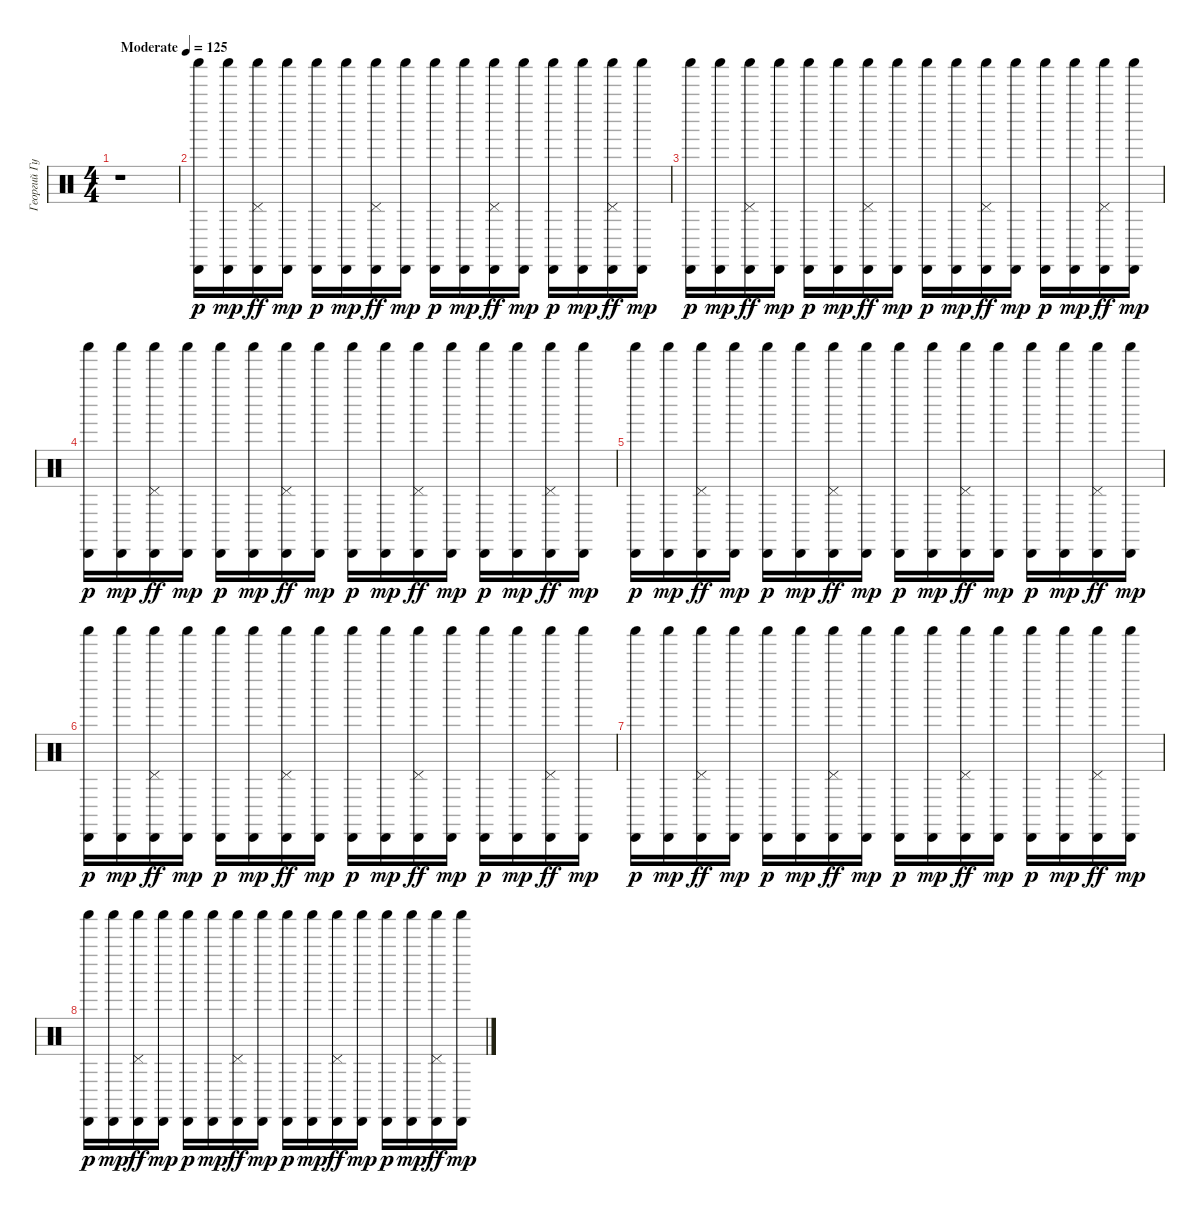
\track ("Георгий Гурьянов_2" "Георгий Гу") {instrument percussion}
\staff {score}
\articulation defaults
\ts (4 4)
\tempo (125 "Moderate")
\clef neutral
\ks c
r.1{dy p} |
("Cabasa (hit)" "Shaker (hit)").16 ("Cabasa (hit)" "Shaker (hit)").16{dy mp} ("Cabasa (hit)" "Shaker (hit)" "Pedal Hi-Hat (hit)").16{dy ff} ("Cabasa (hit)" "Shaker (hit)").16{dy mp} ("Cabasa (hit)" "Shaker (hit)").16{dy p} ("Cabasa (hit)" "Shaker (hit)").16{dy mp} ("Cabasa (hit)" "Shaker (hit)" "Pedal Hi-Hat (hit)").16{dy ff} ("Cabasa (hit)" "Shaker (hit)").16{dy mp} ("Cabasa (hit)" "Shaker (hit)").16{dy p} ("Cabasa (hit)" "Shaker (hit)").16{dy mp} ("Cabasa (hit)" "Shaker (hit)" "Pedal Hi-Hat (hit)").16{dy ff} ("Cabasa (hit)" "Shaker (hit)").16{dy mp} ("Cabasa (hit)" "Shaker (hit)").16{dy p} ("Cabasa (hit)" "Shaker (hit)").16{dy mp} ("Cabasa (hit)" "Shaker (hit)" "Pedal Hi-Hat (hit)").16{dy ff} ("Cabasa (hit)" "Shaker (hit)").16{dy mp} |
("Cabasa (hit)" "Shaker (hit)").16{dy p} ("Cabasa (hit)" "Shaker (hit)").16{dy mp} ("Cabasa (hit)" "Shaker (hit)" "Pedal Hi-Hat (hit)").16{dy ff} ("Cabasa (hit)" "Shaker (hit)").16{dy mp} ("Cabasa (hit)" "Shaker (hit)").16{dy p} ("Cabasa (hit)" "Shaker (hit)").16{dy mp} ("Cabasa (hit)" "Shaker (hit)" "Pedal Hi-Hat (hit)").16{dy ff} ("Cabasa (hit)" "Shaker (hit)").16{dy mp} ("Cabasa (hit)" "Shaker (hit)").16{dy p} ("Cabasa (hit)" "Shaker (hit)").16{dy mp} ("Cabasa (hit)" "Shaker (hit)" "Pedal Hi-Hat (hit)").16{dy ff} ("Cabasa (hit)" "Shaker (hit)").16{dy mp} ("Cabasa (hit)" "Shaker (hit)").16{dy p} ("Cabasa (hit)" "Shaker (hit)").16{dy mp} ("Cabasa (hit)" "Shaker (hit)" "Pedal Hi-Hat (hit)").16{dy ff} ("Cabasa (hit)" "Shaker (hit)").16{dy mp} |
("Cabasa (hit)" "Shaker (hit)").16{dy p} ("Cabasa (hit)" "Shaker (hit)").16{dy mp} ("Cabasa (hit)" "Shaker (hit)" "Pedal Hi-Hat (hit)").16{dy ff} ("Cabasa (hit)" "Shaker (hit)").16{dy mp} ("Cabasa (hit)" "Shaker (hit)").16{dy p} ("Cabasa (hit)" "Shaker (hit)").16{dy mp} ("Cabasa (hit)" "Shaker (hit)" "Pedal Hi-Hat (hit)").16{dy ff} ("Cabasa (hit)" "Shaker (hit)").16{dy mp} ("Cabasa (hit)" "Shaker (hit)").16{dy p} ("Cabasa (hit)" "Shaker (hit)").16{dy mp} ("Cabasa (hit)" "Shaker (hit)" "Pedal Hi-Hat (hit)").16{dy ff} ("Cabasa (hit)" "Shaker (hit)").16{dy mp} ("Cabasa (hit)" "Shaker (hit)").16{dy p} ("Cabasa (hit)" "Shaker (hit)").16{dy mp} ("Cabasa (hit)" "Shaker (hit)" "Pedal Hi-Hat (hit)").16{dy ff} ("Cabasa (hit)" "Shaker (hit)").16{dy mp} |
("Cabasa (hit)" "Shaker (hit)").16{dy p} ("Cabasa (hit)" "Shaker (hit)").16{dy mp} ("Cabasa (hit)" "Shaker (hit)" "Pedal Hi-Hat (hit)").16{dy ff} ("Cabasa (hit)" "Shaker (hit)").16{dy mp} ("Cabasa (hit)" "Shaker (hit)").16{dy p} ("Cabasa (hit)" "Shaker (hit)").16{dy mp} ("Cabasa (hit)" "Shaker (hit)" "Pedal Hi-Hat (hit)").16{dy ff} ("Cabasa (hit)" "Shaker (hit)").16{dy mp} ("Cabasa (hit)" "Shaker (hit)").16{dy p} ("Cabasa (hit)" "Shaker (hit)").16{dy mp} ("Cabasa (hit)" "Shaker (hit)" "Pedal Hi-Hat (hit)").16{dy ff} ("Cabasa (hit)" "Shaker (hit)").16{dy mp} ("Cabasa (hit)" "Shaker (hit)").16{dy p} ("Cabasa (hit)" "Shaker (hit)").16{dy mp} ("Cabasa (hit)" "Shaker (hit)" "Pedal Hi-Hat (hit)").16{dy ff} ("Cabasa (hit)" "Shaker (hit)").16{dy mp} |
("Cabasa (hit)" "Shaker (hit)").16{dy p} ("Cabasa (hit)" "Shaker (hit)").16{dy mp} ("Cabasa (hit)" "Shaker (hit)" "Pedal Hi-Hat (hit)").16{dy ff} ("Cabasa (hit)" "Shaker (hit)").16{dy mp} ("Cabasa (hit)" "Shaker (hit)").16{dy p} ("Cabasa (hit)" "Shaker (hit)").16{dy mp} ("Cabasa (hit)" "Shaker (hit)" "Pedal Hi-Hat (hit)").16{dy ff} ("Cabasa (hit)" "Shaker (hit)").16{dy mp} ("Cabasa (hit)" "Shaker (hit)").16{dy p} ("Cabasa (hit)" "Shaker (hit)").16{dy mp} ("Cabasa (hit)" "Shaker (hit)" "Pedal Hi-Hat (hit)").16{dy ff} ("Cabasa (hit)" "Shaker (hit)").16{dy mp} ("Cabasa (hit)" "Shaker (hit)").16{dy p} ("Cabasa (hit)" "Shaker (hit)").16{dy mp} ("Cabasa (hit)" "Shaker (hit)" "Pedal Hi-Hat (hit)").16{dy ff} ("Cabasa (hit)" "Shaker (hit)").16{dy mp} |
("Cabasa (hit)" "Shaker (hit)").16{dy p} ("Cabasa (hit)" "Shaker (hit)").16{dy mp} ("Cabasa (hit)" "Shaker (hit)" "Pedal Hi-Hat (hit)").16{dy ff} ("Cabasa (hit)" "Shaker (hit)").16{dy mp} ("Cabasa (hit)" "Shaker (hit)").16{dy p} ("Cabasa (hit)" "Shaker (hit)").16{dy mp} ("Cabasa (hit)" "Shaker (hit)" "Pedal Hi-Hat (hit)").16{dy ff} ("Cabasa (hit)" "Shaker (hit)").16{dy mp} ("Cabasa (hit)" "Shaker (hit)").16{dy p} ("Cabasa (hit)" "Shaker (hit)").16{dy mp} ("Cabasa (hit)" "Shaker (hit)" "Pedal Hi-Hat (hit)").16{dy ff} ("Cabasa (hit)" "Shaker (hit)").16{dy mp} ("Cabasa (hit)" "Shaker (hit)").16{dy p} ("Cabasa (hit)" "Shaker (hit)").16{dy mp} ("Cabasa (hit)" "Shaker (hit)" "Pedal Hi-Hat (hit)").16{dy ff} ("Cabasa (hit)" "Shaker (hit)").16{dy mp} |
("Cabasa (hit)" "Shaker (hit)").16{dy p} ("Cabasa (hit)" "Shaker (hit)").16{dy mp} ("Cabasa (hit)" "Shaker (hit)" "Pedal Hi-Hat (hit)").16{dy ff} ("Cabasa (hit)" "Shaker (hit)").16{dy mp} ("Cabasa (hit)" "Shaker (hit)").16{dy p} ("Cabasa (hit)" "Shaker (hit)").16{dy mp} ("Cabasa (hit)" "Shaker (hit)" "Pedal Hi-Hat (hit)").16{dy ff} ("Cabasa (hit)" "Shaker (hit)").16{dy mp} ("Cabasa (hit)" "Shaker (hit)").16{dy p} ("Cabasa (hit)" "Shaker (hit)").16{dy mp} ("Cabasa (hit)" "Shaker (hit)" "Pedal Hi-Hat (hit)").16{dy ff} ("Cabasa (hit)" "Shaker (hit)").16{dy mp} ("Cabasa (hit)" "Shaker (hit)").16{dy p} ("Cabasa (hit)" "Shaker (hit)").16{dy mp} ("Cabasa (hit)" "Shaker (hit)" "Pedal Hi-Hat (hit)").16{dy ff} ("Cabasa (hit)" "Shaker (hit)").16{dy mp}
